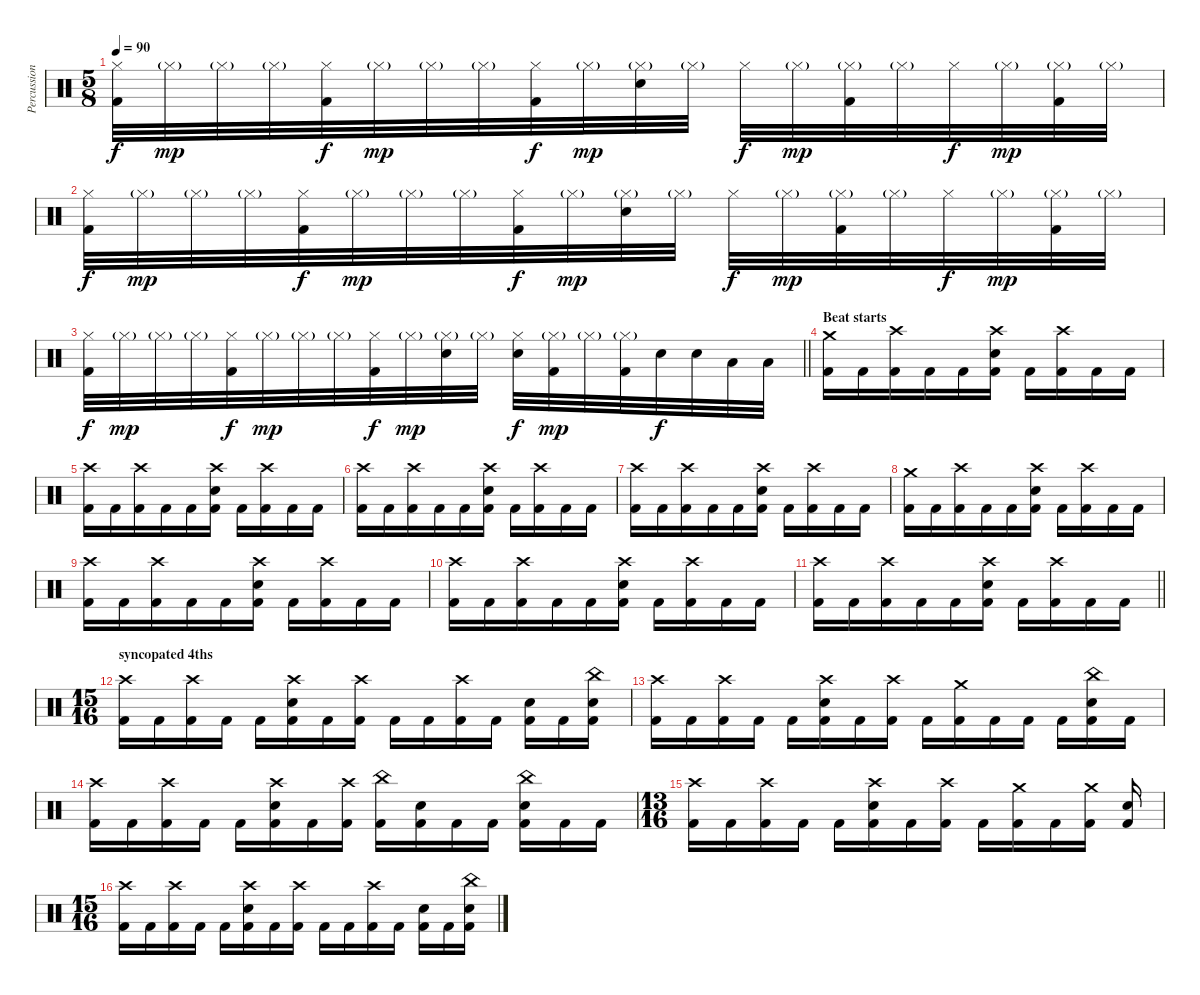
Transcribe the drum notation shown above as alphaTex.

\track ("Percussion" "Percussion") {instrument percussion}
\staff {score}
\articulation defaults
\ts (5 8)
\tempo 90
\clef neutral
\ks c
("Hi-Hat (closed)" "Kick (hit) 2").32{dy f} "Hi-Hat (closed)"{g}.32{dy mp} "Hi-Hat (closed)"{g}.32 "Hi-Hat (closed)"{g}.32 ("Hi-Hat (closed)" "Kick (hit) 2").32{dy f} "Hi-Hat (closed)"{g}.32{dy mp} "Hi-Hat (closed)"{g}.32 "Hi-Hat (closed)"{g}.32 ("Hi-Hat (closed)" "Kick (hit) 2").32{dy f} "Hi-Hat (closed)"{g}.32{dy mp} ("Hi-Hat (closed)"{g} "Electric Snare (hit)").32 "Hi-Hat (closed)"{g}.32 "Hi-Hat (closed)".32{dy f} "Hi-Hat (closed)"{g}.32{dy mp} ("Hi-Hat (closed)"{g} "Kick (hit) 2").32 "Hi-Hat (closed)"{g}.32 "Hi-Hat (closed)".32{dy f} "Hi-Hat (closed)"{g}.32{dy mp} ("Hi-Hat (closed)"{g} "Kick (hit) 2").32 "Hi-Hat (closed)"{g}.32 |
("Hi-Hat (closed)" "Kick (hit) 2").32{dy f} "Hi-Hat (closed)"{g}.32{dy mp} "Hi-Hat (closed)"{g}.32 "Hi-Hat (closed)"{g}.32 ("Hi-Hat (closed)" "Kick (hit) 2").32{dy f} "Hi-Hat (closed)"{g}.32{dy mp} "Hi-Hat (closed)"{g}.32 "Hi-Hat (closed)"{g}.32 ("Hi-Hat (closed)" "Kick (hit) 2").32{dy f} "Hi-Hat (closed)"{g}.32{dy mp} ("Hi-Hat (closed)"{g} "Electric Snare (hit)").32 "Hi-Hat (closed)"{g}.32 "Hi-Hat (closed)".32{dy f} "Hi-Hat (closed)"{g}.32{dy mp} ("Hi-Hat (closed)"{g} "Kick (hit) 2").32 "Hi-Hat (closed)"{g}.32 "Hi-Hat (closed)".32{dy f} "Hi-Hat (closed)"{g}.32{dy mp} ("Hi-Hat (closed)"{g} "Kick (hit) 2").32 "Hi-Hat (closed)"{g}.32 |
\barLineRight lightlight
("Hi-Hat (closed)" "Kick (hit) 2").32{dy f} "Hi-Hat (closed)"{g}.32{dy mp} "Hi-Hat (closed)"{g}.32 "Hi-Hat (closed)"{g}.32 ("Hi-Hat (closed)" "Kick (hit) 2").32{dy f} "Hi-Hat (closed)"{g}.32{dy mp} "Hi-Hat (closed)"{g}.32 "Hi-Hat (closed)"{g}.32 ("Hi-Hat (closed)" "Kick (hit) 2").32{dy f} "Hi-Hat (closed)"{g}.32{dy mp} ("Hi-Hat (closed)"{g} "Electric Snare (hit)").32 "Hi-Hat (closed)"{g}.32 ("Hi-Hat (closed)" "Electric Snare (hit)").32{dy f} ("Hi-Hat (closed)"{g} "Kick (hit) 2").32{dy mp} "Hi-Hat (closed)"{g}.32 ("Hi-Hat (closed)"{g} "Kick (hit) 2").32 "Electric Snare (hit)".32{dy f} "Electric Snare (hit)".32 "Low Tom (hit)".32 "Low Tom (hit)".32 |
\section ("" "Beat starts")
("Crash medium (hit)" "Kick (hit) 2").16 "Kick (hit) 2".16 ("Crash high (hit)" "Kick (hit) 2").16 "Kick (hit) 2".16 "Kick (hit) 2".16 ("Crash high (hit)" "Electric Snare (hit)" "Kick (hit) 2").16 "Kick (hit) 2".16 ("Crash high (hit)" "Kick (hit) 2").16 "Kick (hit) 2".16 "Kick (hit) 2".16 |
("Crash high (hit)" "Kick (hit) 2").16 "Kick (hit) 2".16 ("Crash high (hit)" "Kick (hit) 2").16 "Kick (hit) 2".16 "Kick (hit) 2".16 ("Crash high (hit)" "Electric Snare (hit)" "Kick (hit) 2").16 "Kick (hit) 2".16 ("Crash high (hit)" "Kick (hit) 2").16 "Kick (hit) 2".16 "Kick (hit) 2".16 |
("Crash high (hit)" "Kick (hit) 2").16 "Kick (hit) 2".16 ("Crash high (hit)" "Kick (hit) 2").16 "Kick (hit) 2".16 "Kick (hit) 2".16 ("Crash high (hit)" "Electric Snare (hit)" "Kick (hit) 2").16 "Kick (hit) 2".16 ("Crash high (hit)" "Kick (hit) 2").16 "Kick (hit) 2".16 "Kick (hit) 2".16 |
("Crash high (hit)" "Kick (hit) 2").16 "Kick (hit) 2".16 ("Crash high (hit)" "Kick (hit) 2").16 "Kick (hit) 2".16 "Kick (hit) 2".16 ("Crash high (hit)" "Electric Snare (hit)" "Kick (hit) 2").16 "Kick (hit) 2".16 ("Crash high (hit)" "Kick (hit) 2").16 "Kick (hit) 2".16 "Kick (hit) 2".16 |
("Crash medium (hit)" "Kick (hit) 2").16 "Kick (hit) 2".16 ("Crash high (hit)" "Kick (hit) 2").16 "Kick (hit) 2".16 "Kick (hit) 2".16 ("Crash high (hit)" "Electric Snare (hit)" "Kick (hit) 2").16 "Kick (hit) 2".16 ("Crash high (hit)" "Kick (hit) 2").16 "Kick (hit) 2".16 "Kick (hit) 2".16 |
("Crash high (hit)" "Kick (hit) 2").16 "Kick (hit) 2".16 ("Crash high (hit)" "Kick (hit) 2").16 "Kick (hit) 2".16 "Kick (hit) 2".16 ("Crash high (hit)" "Electric Snare (hit)" "Kick (hit) 2").16 "Kick (hit) 2".16 ("Crash high (hit)" "Kick (hit) 2").16 "Kick (hit) 2".16 "Kick (hit) 2".16 |
("Crash high (hit)" "Kick (hit) 2").16 "Kick (hit) 2".16 ("Crash high (hit)" "Kick (hit) 2").16 "Kick (hit) 2".16 "Kick (hit) 2".16 ("Crash high (hit)" "Electric Snare (hit)" "Kick (hit) 2").16 "Kick (hit) 2".16 ("Crash high (hit)" "Kick (hit) 2").16 "Kick (hit) 2".16 "Kick (hit) 2".16 |
\barLineRight lightlight
("Crash high (hit)" "Kick (hit) 2").16 "Kick (hit) 2".16 ("Crash high (hit)" "Kick (hit) 2").16 "Kick (hit) 2".16 "Kick (hit) 2".16 ("Crash high (hit)" "Electric Snare (hit)" "Kick (hit) 2").16 "Kick (hit) 2".16 ("Crash high (hit)" "Kick (hit) 2").16 "Kick (hit) 2".16 "Kick (hit) 2".16 |
\ts (15 16)
\section ("" "syncopated 4ths")
("Crash high (hit)" "Kick (hit) 2").16 "Kick (hit) 2".16 ("Crash high (hit)" "Kick (hit) 2").16 "Kick (hit) 2".16 "Kick (hit) 2".16 ("Crash high (hit)" "Electric Snare (hit)" "Kick (hit) 2").16 "Kick (hit) 2".16 ("Crash high (hit)" "Kick (hit) 2").16 "Kick (hit) 2".16 "Kick (hit) 2".16 ("Crash high (hit)" "Kick (hit) 2").16 "Kick (hit) 2".16 ("Electric Snare (hit)" "Kick (hit) 2").16 "Kick (hit) 2".16 ("China (hit)" "Electric Snare (hit)" "Kick (hit) 2").16 |
("Crash high (hit)" "Kick (hit) 2").16 "Kick (hit) 2".16 ("Crash high (hit)" "Kick (hit) 2").16 "Kick (hit) 2".16 "Kick (hit) 2".16 ("Crash high (hit)" "Electric Snare (hit)" "Kick (hit) 2").16 "Kick (hit) 2".16 ("Crash high (hit)" "Kick (hit) 2").16 "Kick (hit) 2".16 ("Crash medium (hit)" "Kick (hit) 2").16 "Kick (hit) 2".16 "Kick (hit) 2".16 "Kick (hit) 2".16 ("China (hit)" "Electric Snare (hit)" "Kick (hit) 2").16 "Kick (hit) 2".16 |
("Crash high (hit)" "Kick (hit) 2").16 "Kick (hit) 2".16 ("Crash high (hit)" "Kick (hit) 2").16 "Kick (hit) 2".16 "Kick (hit) 2".16 ("Crash high (hit)" "Electric Snare (hit)" "Kick (hit) 2").16 "Kick (hit) 2".16 ("Crash high (hit)" "Kick (hit) 2").16 ("China (hit)" "Kick (hit) 2").16 ("Electric Snare (hit)" "Kick (hit) 2").16 "Kick (hit) 2".16 "Kick (hit) 2".16 ("China (hit)" "Electric Snare (hit)" "Kick (hit) 2").16 "Kick (hit) 2".16 "Kick (hit) 2".16 |
\ts (13 16)
("Crash high (hit)" "Kick (hit) 2").16 "Kick (hit) 2".16 ("Crash high (hit)" "Kick (hit) 2").16 "Kick (hit) 2".16 "Kick (hit) 2".16 ("Crash high (hit)" "Electric Snare (hit)" "Kick (hit) 2").16 "Kick (hit) 2".16 ("Crash high (hit)" "Kick (hit) 2").16 "Kick (hit) 2".16 ("Crash medium (hit)" "Kick (hit) 2").16 "Kick (hit) 2".16 ("Crash medium (hit)" "Kick (hit) 2").16 ("Electric Snare (hit)" "Kick (hit) 2").16 |
\ts (15 16)
("Crash high (hit)" "Kick (hit) 2").16 "Kick (hit) 2".16 ("Crash high (hit)" "Kick (hit) 2").16 "Kick (hit) 2".16 "Kick (hit) 2".16 ("Crash high (hit)" "Electric Snare (hit)" "Kick (hit) 2").16 "Kick (hit) 2".16 ("Crash high (hit)" "Kick (hit) 2").16 "Kick (hit) 2".16 "Kick (hit) 2".16 ("Crash high (hit)" "Kick (hit) 2").16 "Kick (hit) 2".16 ("Electric Snare (hit)" "Kick (hit) 2").16 "Kick (hit) 2".16 ("China (hit)" "Electric Snare (hit)" "Kick (hit) 2").16
